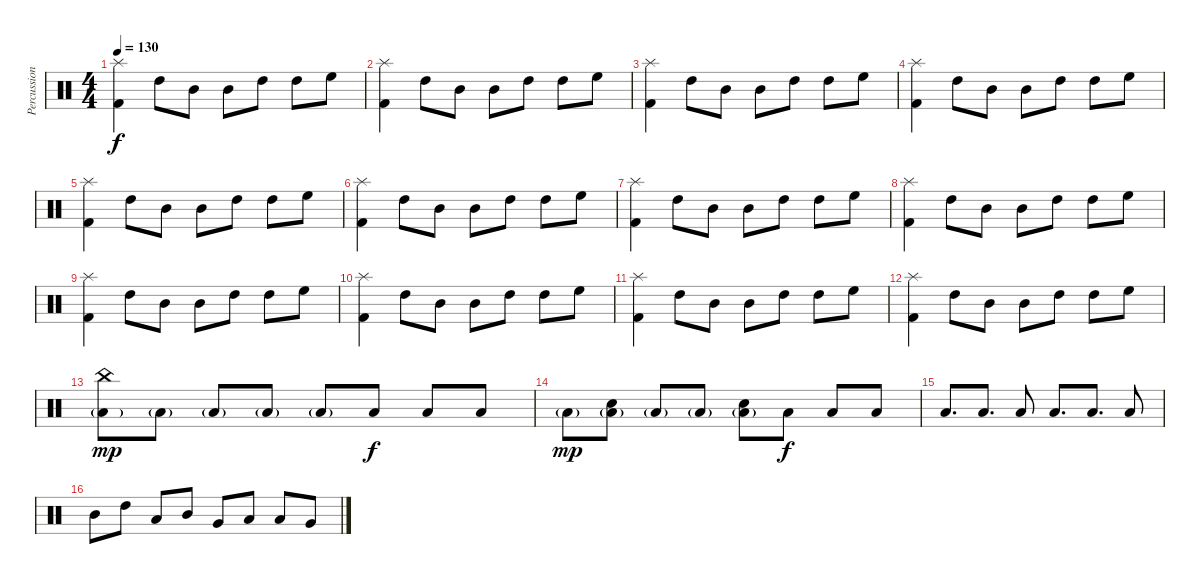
\track ("Percussion" "Percussion") {instrument percussion}
\staff {score}
\articulation defaults
\ts (4 4)
\tempo 130
\clef neutral
\ks c
("Splash (hit)" "Kick (hit) 2").4{dy f} "High Tom (hit)".8 "Mid Tom (hit)".8 "Mid Tom (hit)".8 "High Tom (hit)".8 "High Tom (hit)".8 "High Floor Tom (hit)".8 |
("Splash (hit)" "Kick (hit) 2").4 "High Tom (hit)".8 "Mid Tom (hit)".8 "Mid Tom (hit)".8 "High Tom (hit)".8 "High Tom (hit)".8 "High Floor Tom (hit)".8 |
("Splash (hit)" "Kick (hit) 2").4 "High Tom (hit)".8 "Mid Tom (hit)".8 "Mid Tom (hit)".8 "High Tom (hit)".8 "High Tom (hit)".8 "High Floor Tom (hit)".8 |
("Splash (hit)" "Kick (hit) 2").4 "High Tom (hit)".8 "Mid Tom (hit)".8 "Mid Tom (hit)".8 "High Tom (hit)".8 "High Tom (hit)".8 "High Floor Tom (hit)".8 |
("Splash (hit)" "Kick (hit) 2").4 "High Tom (hit)".8 "Mid Tom (hit)".8 "Mid Tom (hit)".8 "High Tom (hit)".8 "High Tom (hit)".8 "High Floor Tom (hit)".8 |
("Splash (hit)" "Kick (hit) 2").4 "High Tom (hit)".8 "Mid Tom (hit)".8 "Mid Tom (hit)".8 "High Tom (hit)".8 "High Tom (hit)".8 "High Floor Tom (hit)".8 |
("Splash (hit)" "Kick (hit) 2").4 "High Tom (hit)".8 "Mid Tom (hit)".8 "Mid Tom (hit)".8 "High Tom (hit)".8 "High Tom (hit)".8 "High Floor Tom (hit)".8 |
("Splash (hit)" "Kick (hit) 2").4 "High Tom (hit)".8 "Mid Tom (hit)".8 "Mid Tom (hit)".8 "High Tom (hit)".8 "High Tom (hit)".8 "High Floor Tom (hit)".8 |
("Splash (hit)" "Kick (hit) 2").4 "High Tom (hit)".8 "Mid Tom (hit)".8 "Mid Tom (hit)".8 "High Tom (hit)".8 "High Tom (hit)".8 "High Floor Tom (hit)".8 |
("Splash (hit)" "Kick (hit) 2").4 "High Tom (hit)".8 "Mid Tom (hit)".8 "Mid Tom (hit)".8 "High Tom (hit)".8 "High Tom (hit)".8 "High Floor Tom (hit)".8 |
("Splash (hit)" "Kick (hit) 2").4 "High Tom (hit)".8 "Mid Tom (hit)".8 "Mid Tom (hit)".8 "High Tom (hit)".8 "High Tom (hit)".8 "High Floor Tom (hit)".8 |
("Splash (hit)" "Kick (hit) 2").4 "High Tom (hit)".8 "Mid Tom (hit)".8 "Mid Tom (hit)".8 "High Tom (hit)".8 "High Tom (hit)".8 "High Floor Tom (hit)".8 |
("China (hit)" "Low Tom (hit)"{g}).8{dy mp} "Low Tom (hit)"{g}.8 "Low Tom (hit)"{g}.8 "Low Tom (hit)"{g}.8 "Low Tom (hit)"{g}.8 "Low Tom (hit)".8{dy f} "Low Tom (hit)".8 "Low Tom (hit)".8 |
"Low Tom (hit)"{g}.8{dy mp} ("Electric Snare (hit)" "Low Tom (hit)"{g}).8 "Low Tom (hit)"{g}.8 "Low Tom (hit)"{g}.8 ("Electric Snare (hit)" "Low Tom (hit)"{g}).8 "Low Tom (hit)".8{dy f} "Low Tom (hit)".8 "Low Tom (hit)".8 |
"Low Tom (hit)".8{d} "Low Tom (hit)".8{d} "Low Tom (hit)".8 "Low Tom (hit)".8{d} "Low Tom (hit)".8{d} "Low Tom (hit)".8 |
"Mid Tom (hit)".8 "High Tom (hit)".8 "Low Tom (hit)".8 "Mid Tom (hit)".8 "Very Low Tom (hit)".8 "Low Tom (hit)".8 "Low Tom (hit)".8 "Very Low Tom (hit)".8
